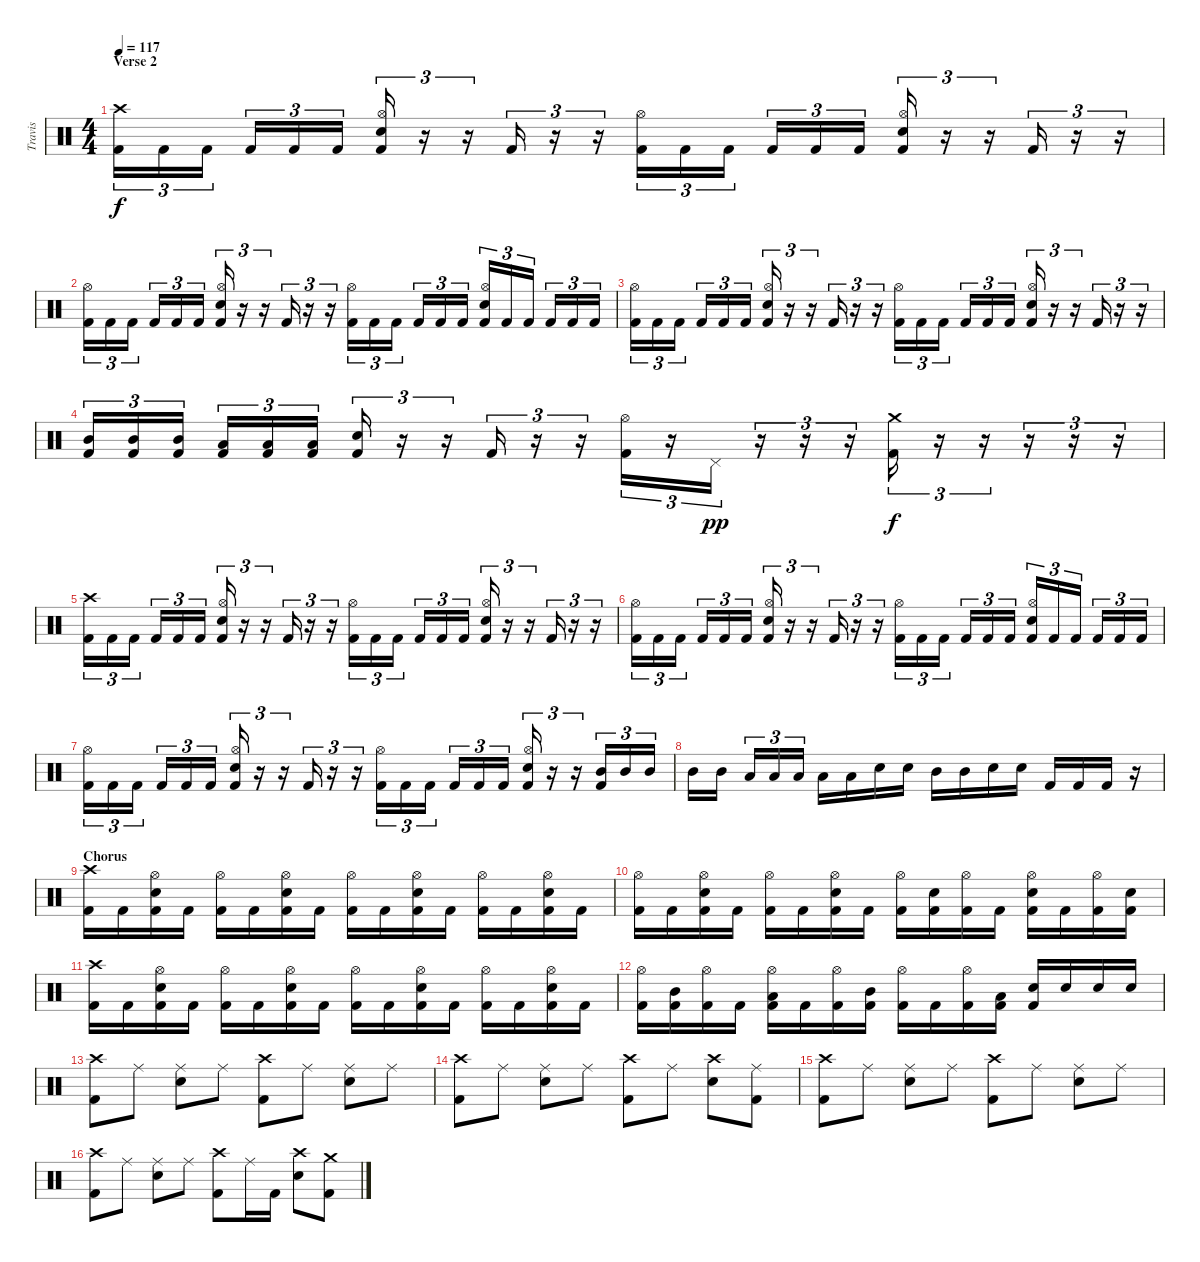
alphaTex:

\track ("Travis" "Travis") {instrument percussion}
\staff {score}
\articulation defaults
\ts (4 4)
\section ("" "Verse 2")
\tempo 117
\clef neutral
\ks c
("Crash high (hit)" "Kick (hit) 2").16{tu (3 2) dy f} "Kick (hit) 2".16{tu (3 2)} "Kick (hit) 2".16{tu (3 2)} "Kick (hit) 2".16{tu (3 2)} "Kick (hit) 2".16{tu (3 2)} "Kick (hit) 2".16{tu (3 2)} ("Hi-Hat (open)" "Electric Snare (hit)" "Kick (hit) 2").16{tu (3 2)} r.16{tu (3 2)} r.16{tu (3 2)} "Kick (hit) 2".16{tu (3 2)} r.16{tu (3 2)} r.16{tu (3 2)} ("Hi-Hat (open)" "Kick (hit) 2").16{tu (3 2)} "Kick (hit) 2".16{tu (3 2)} "Kick (hit) 2".16{tu (3 2)} "Kick (hit) 2".16{tu (3 2)} "Kick (hit) 2".16{tu (3 2)} "Kick (hit) 2".16{tu (3 2)} ("Hi-Hat (open)" "Electric Snare (hit)" "Kick (hit) 2").16{tu (3 2)} r.16{tu (3 2)} r.16{tu (3 2)} "Kick (hit) 2".16{tu (3 2)} r.16{tu (3 2)} r.16{tu (3 2)} |
("Hi-Hat (open)" "Kick (hit) 2").16{tu (3 2)} "Kick (hit) 2".16{tu (3 2)} "Kick (hit) 2".16{tu (3 2)} "Kick (hit) 2".16{tu (3 2)} "Kick (hit) 2".16{tu (3 2)} "Kick (hit) 2".16{tu (3 2)} ("Hi-Hat (open)" "Electric Snare (hit)" "Kick (hit) 2").16{tu (3 2)} r.16{tu (3 2)} r.16{tu (3 2)} "Kick (hit) 2".16{tu (3 2)} r.16{tu (3 2)} r.16{tu (3 2)} ("Hi-Hat (open)" "Kick (hit) 2").16{tu (3 2)} "Kick (hit) 2".16{tu (3 2)} "Kick (hit) 2".16{tu (3 2)} "Kick (hit) 2".16{tu (3 2)} "Kick (hit) 2".16{tu (3 2)} "Kick (hit) 2".16{tu (3 2)} ("Hi-Hat (open)" "Electric Snare (hit)" "Kick (hit) 2").16{tu (3 2)} "Kick (hit) 2".16{tu (3 2)} "Kick (hit) 2".16{tu (3 2)} "Kick (hit) 2".16{tu (3 2)} "Kick (hit) 2".16{tu (3 2)} "Kick (hit) 2".16{tu (3 2)} |
("Hi-Hat (open)" "Kick (hit) 2").16{tu (3 2)} "Kick (hit) 2".16{tu (3 2)} "Kick (hit) 2".16{tu (3 2)} "Kick (hit) 2".16{tu (3 2)} "Kick (hit) 2".16{tu (3 2)} "Kick (hit) 2".16{tu (3 2)} ("Hi-Hat (open)" "Electric Snare (hit)" "Kick (hit) 2").16{tu (3 2)} r.16{tu (3 2)} r.16{tu (3 2)} "Kick (hit) 2".16{tu (3 2)} r.16{tu (3 2)} r.16{tu (3 2)} ("Hi-Hat (open)" "Kick (hit) 2").16{tu (3 2)} "Kick (hit) 2".16{tu (3 2)} "Kick (hit) 2".16{tu (3 2)} "Kick (hit) 2".16{tu (3 2)} "Kick (hit) 2".16{tu (3 2)} "Kick (hit) 2".16{tu (3 2)} ("Hi-Hat (open)" "Electric Snare (hit)" "Kick (hit) 2").16{tu (3 2)} r.16{tu (3 2)} r.16{tu (3 2)} "Kick (hit) 2".16{tu (3 2)} r.16{tu (3 2)} r.16{tu (3 2)} |
("Mid Tom (hit)" "Kick (hit) 2").16{tu (3 2)} ("Mid Tom (hit)" "Kick (hit) 2").16{tu (3 2)} ("Mid Tom (hit)" "Kick (hit) 2").16{tu (3 2)} ("Low Tom (hit)" "Kick (hit) 2").16{tu (3 2)} ("Low Tom (hit)" "Kick (hit) 2").16{tu (3 2)} ("Low Tom (hit)" "Kick (hit) 2").16{tu (3 2)} ("Electric Snare (hit)" "Kick (hit) 2").16{tu (3 2)} r.16{tu (3 2)} r.16{tu (3 2)} "Kick (hit) 2".16{tu (3 2)} r.16{tu (3 2)} r.16{tu (3 2)} ("Hi-Hat (open)" "Kick (hit) 2").16{tu (3 2)} r.16{tu (3 2)} "Pedal Hi-Hat (hit)".16{tu (3 2) dy pp} r.16{tu (3 2)} r.16{tu (3 2)} r.16{tu (3 2)} ("Crash medium (hit)" "Kick (hit) 2").16{tu (3 2) dy f} r.16{tu (3 2)} r.16{tu (3 2)} r.16{tu (3 2)} r.16{tu (3 2)} r.16{tu (3 2)} |
("Crash high (hit)" "Kick (hit) 2").16{tu (3 2)} "Kick (hit) 2".16{tu (3 2)} "Kick (hit) 2".16{tu (3 2)} "Kick (hit) 2".16{tu (3 2)} "Kick (hit) 2".16{tu (3 2)} "Kick (hit) 2".16{tu (3 2)} ("Hi-Hat (open)" "Electric Snare (hit)" "Kick (hit) 2").16{tu (3 2)} r.16{tu (3 2)} r.16{tu (3 2)} "Kick (hit) 2".16{tu (3 2)} r.16{tu (3 2)} r.16{tu (3 2)} ("Hi-Hat (open)" "Kick (hit) 2").16{tu (3 2)} "Kick (hit) 2".16{tu (3 2)} "Kick (hit) 2".16{tu (3 2)} "Kick (hit) 2".16{tu (3 2)} "Kick (hit) 2".16{tu (3 2)} "Kick (hit) 2".16{tu (3 2)} ("Hi-Hat (open)" "Electric Snare (hit)" "Kick (hit) 2").16{tu (3 2)} r.16{tu (3 2)} r.16{tu (3 2)} "Kick (hit) 2".16{tu (3 2)} r.16{tu (3 2)} r.16{tu (3 2)} |
("Hi-Hat (open)" "Kick (hit) 2").16{tu (3 2)} "Kick (hit) 2".16{tu (3 2)} "Kick (hit) 2".16{tu (3 2)} "Kick (hit) 2".16{tu (3 2)} "Kick (hit) 2".16{tu (3 2)} "Kick (hit) 2".16{tu (3 2)} ("Hi-Hat (open)" "Electric Snare (hit)" "Kick (hit) 2").16{tu (3 2)} r.16{tu (3 2)} r.16{tu (3 2)} "Kick (hit) 2".16{tu (3 2)} r.16{tu (3 2)} r.16{tu (3 2)} ("Hi-Hat (open)" "Kick (hit) 2").16{tu (3 2)} "Kick (hit) 2".16{tu (3 2)} "Kick (hit) 2".16{tu (3 2)} "Kick (hit) 2".16{tu (3 2)} "Kick (hit) 2".16{tu (3 2)} "Kick (hit) 2".16{tu (3 2)} ("Hi-Hat (open)" "Electric Snare (hit)" "Kick (hit) 2").16{tu (3 2)} "Kick (hit) 2".16{tu (3 2)} "Kick (hit) 2".16{tu (3 2)} "Kick (hit) 2".16{tu (3 2)} "Kick (hit) 2".16{tu (3 2)} "Kick (hit) 2".16{tu (3 2)} |
("Hi-Hat (open)" "Kick (hit) 2").16{tu (3 2)} "Kick (hit) 2".16{tu (3 2)} "Kick (hit) 2".16{tu (3 2)} "Kick (hit) 2".16{tu (3 2)} "Kick (hit) 2".16{tu (3 2)} "Kick (hit) 2".16{tu (3 2)} ("Hi-Hat (open)" "Electric Snare (hit)" "Kick (hit) 2").16{tu (3 2)} r.16{tu (3 2)} r.16{tu (3 2)} "Kick (hit) 2".16{tu (3 2)} r.16{tu (3 2)} r.16{tu (3 2)} ("Hi-Hat (open)" "Kick (hit) 2").16{tu (3 2)} "Kick (hit) 2".16{tu (3 2)} "Kick (hit) 2".16{tu (3 2)} "Kick (hit) 2".16{tu (3 2)} "Kick (hit) 2".16{tu (3 2)} "Kick (hit) 2".16{tu (3 2)} ("Hi-Hat (open)" "Electric Snare (hit)" "Kick (hit) 2").16{tu (3 2)} r.16{tu (3 2)} r.16{tu (3 2)} ("Mid Tom (hit)" "Kick (hit) 2").16{tu (3 2)} "Mid Tom (hit)".16{tu (3 2)} "Mid Tom (hit)".16{tu (3 2)} |
"Mid Tom (hit)".16 "Mid Tom (hit)".16 "Low Tom (hit)".16{tu (3 2)} "Low Tom (hit)".16{tu (3 2)} "Low Tom (hit)".16{tu (3 2)} "Low Tom (hit)".16 "Low Tom (hit)".16 "Electric Snare (hit)".16 "Electric Snare (hit)".16 "Mid Tom (hit)".16 "Mid Tom (hit)".16 "Electric Snare (hit)".16 "Electric Snare (hit)".16 "Kick (hit) 2".16 "Kick (hit) 2".16 "Kick (hit) 2".16 r.16 |
\section ("" "Chorus")
("Crash high (hit)" "Kick (hit) 2").16 "Kick (hit) 2".16 ("Hi-Hat (open)" "Electric Snare (hit)" "Kick (hit) 2").16 "Kick (hit) 2".16 ("Hi-Hat (open)" "Kick (hit) 2").16 "Kick (hit) 2".16 ("Hi-Hat (open)" "Electric Snare (hit)" "Kick (hit) 2").16 "Kick (hit) 2".16 ("Hi-Hat (open)" "Kick (hit) 2").16 "Kick (hit) 2".16 ("Hi-Hat (open)" "Electric Snare (hit)" "Kick (hit) 2").16 "Kick (hit) 2".16 ("Hi-Hat (open)" "Kick (hit) 2").16 "Kick (hit) 2".16 ("Hi-Hat (open)" "Electric Snare (hit)" "Kick (hit) 2").16 "Kick (hit) 2".16 |
("Hi-Hat (open)" "Kick (hit) 2").16 "Kick (hit) 2".16 ("Hi-Hat (open)" "Electric Snare (hit)" "Kick (hit) 2").16 "Kick (hit) 2".16 ("Hi-Hat (open)" "Kick (hit) 2").16 "Kick (hit) 2".16 ("Hi-Hat (open)" "Electric Snare (hit)" "Kick (hit) 2").16 "Kick (hit) 2".16 ("Hi-Hat (open)" "Kick (hit) 2").16 ("Electric Snare (hit)" "Kick (hit) 2").16 ("Hi-Hat (open)" "Kick (hit) 2").16 "Kick (hit) 2".16 ("Hi-Hat (open)" "Electric Snare (hit)" "Kick (hit) 2").16 "Kick (hit) 2".16 ("Hi-Hat (open)" "Kick (hit) 2").16 ("Electric Snare (hit)" "Kick (hit) 2").16 |
("Crash high (hit)" "Kick (hit) 2").16 "Kick (hit) 2".16 ("Hi-Hat (open)" "Electric Snare (hit)" "Kick (hit) 2").16 "Kick (hit) 2".16 ("Hi-Hat (open)" "Kick (hit) 2").16 "Kick (hit) 2".16 ("Hi-Hat (open)" "Electric Snare (hit)" "Kick (hit) 2").16 "Kick (hit) 2".16 ("Hi-Hat (open)" "Kick (hit) 2").16 "Kick (hit) 2".16 ("Hi-Hat (open)" "Electric Snare (hit)" "Kick (hit) 2").16 "Kick (hit) 2".16 ("Hi-Hat (open)" "Kick (hit) 2").16 "Kick (hit) 2".16 ("Hi-Hat (open)" "Electric Snare (hit)" "Kick (hit) 2").16 "Kick (hit) 2".16 |
("Hi-Hat (open)" "Kick (hit) 2").16 ("Mid Tom (hit)" "Kick (hit) 2").16 ("Hi-Hat (open)" "Kick (hit) 2").16 "Kick (hit) 2".16 ("Hi-Hat (open)" "Low Tom (hit)" "Kick (hit) 2").16 "Kick (hit) 2".16 ("Hi-Hat (open)" "Kick (hit) 2").16 ("Mid Tom (hit)" "Kick (hit) 2").16 ("Hi-Hat (open)" "Kick (hit) 2").16 "Kick (hit) 2".16 ("Hi-Hat (open)" "Kick (hit) 2").16 ("Low Tom (hit)" "Kick (hit) 2").16 ("Electric Snare (hit)" "Kick (hit) 2").16 "Electric Snare (hit)".16 "Electric Snare (hit)".16 "Electric Snare (hit)".16 |
("Crash high (hit)" "Kick (hit) 2").8 "Ride (middle)".8 ("Ride (middle)" "Electric Snare (hit)").8 "Ride (middle)".8 ("Crash high (hit)" "Kick (hit) 2").8 "Ride (middle)".8 ("Ride (middle)" "Electric Snare (hit)").8 "Ride (middle)".8 |
("Crash high (hit)" "Kick (hit) 2").8 "Ride (middle)".8 ("Ride (middle)" "Electric Snare (hit)").8 "Ride (middle)".8 ("Crash high (hit)" "Kick (hit) 2").8 "Ride (middle)".8 ("Crash high (hit)" "Electric Snare (hit)").8 ("Ride (middle)" "Kick (hit) 2").8 |
("Crash high (hit)" "Kick (hit) 2").8 "Ride (middle)".8 ("Ride (middle)" "Electric Snare (hit)").8 "Ride (middle)".8 ("Crash high (hit)" "Kick (hit) 2").8 "Ride (middle)".8 ("Ride (middle)" "Electric Snare (hit)").8 "Ride (middle)".8 |
("Crash high (hit)" "Kick (hit) 2").8 "Ride (middle)".8 ("Ride (middle)" "Electric Snare (hit)").8 "Ride (middle)".8 ("Crash high (hit)" "Kick (hit) 2").8 "Ride (middle)".16 "Kick (hit) 2".16 ("Crash high (hit)" "Electric Snare (hit)").8 ("Crash medium (hit)" "Kick (hit) 2").8
